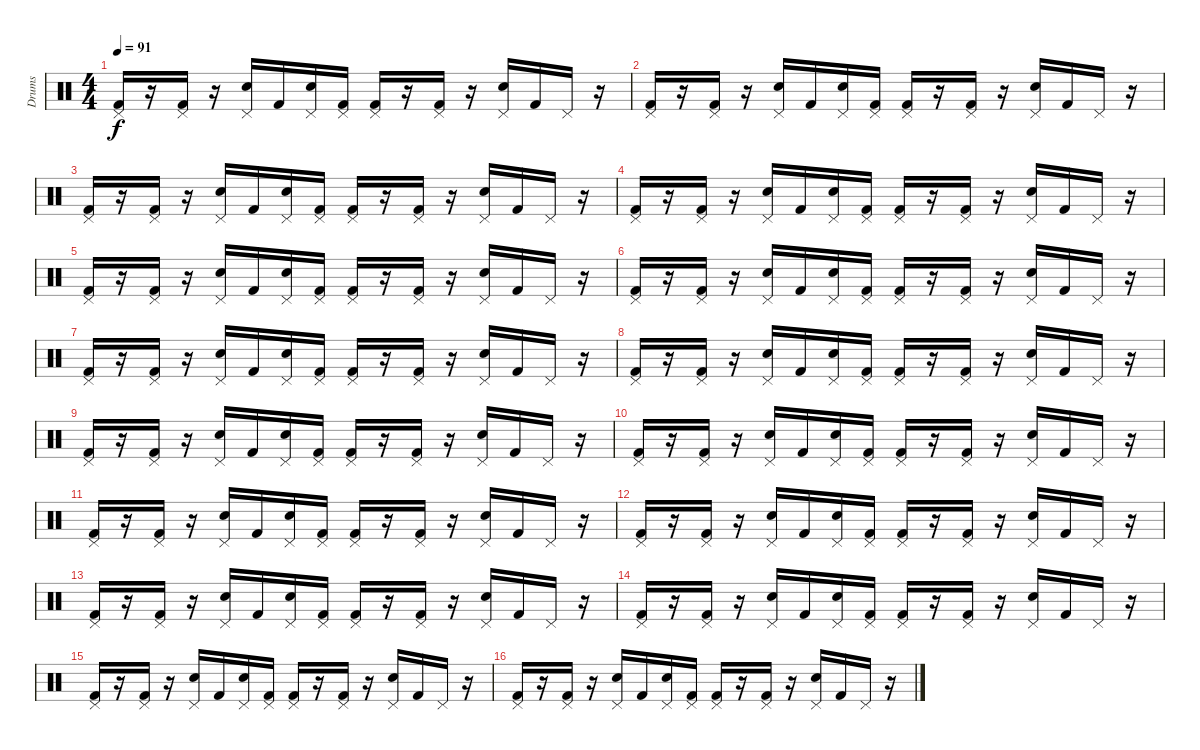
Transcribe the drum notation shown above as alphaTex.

\track ("Drums" "Drums") {instrument percussion}
\staff {score}
\articulation defaults
\ts (4 4)
\tempo 91
\clef neutral
\ks c
("Pedal Hi-Hat (hit)" "Kick (hit) 2").16{dy f} r.16 ("Pedal Hi-Hat (hit)" "Kick (hit) 2").16 r.16 ("Pedal Hi-Hat (hit)" "Snare (hit) 2").16 "Kick (hit) 2".16 ("Pedal Hi-Hat (hit)" "Snare (hit) 2").16 ("Pedal Hi-Hat (hit)" "Kick (hit) 2").16 ("Pedal Hi-Hat (hit)" "Kick (hit) 2").16 r.16 ("Pedal Hi-Hat (hit)" "Kick (hit) 2").16 r.16 ("Pedal Hi-Hat (hit)" "Snare (hit) 2").16 "Kick (hit) 2".16 "Pedal Hi-Hat (hit)".16 r.16 |
("Pedal Hi-Hat (hit)" "Kick (hit) 2").16 r.16 ("Pedal Hi-Hat (hit)" "Kick (hit) 2").16 r.16 ("Pedal Hi-Hat (hit)" "Snare (hit) 2").16 "Kick (hit) 2".16 ("Pedal Hi-Hat (hit)" "Snare (hit) 2").16 ("Pedal Hi-Hat (hit)" "Kick (hit) 2").16 ("Pedal Hi-Hat (hit)" "Kick (hit) 2").16 r.16 ("Pedal Hi-Hat (hit)" "Kick (hit) 2").16 r.16 ("Pedal Hi-Hat (hit)" "Snare (hit) 2").16 "Kick (hit) 2".16 "Pedal Hi-Hat (hit)".16 r.16 |
("Pedal Hi-Hat (hit)" "Kick (hit) 2").16 r.16 ("Pedal Hi-Hat (hit)" "Kick (hit) 2").16 r.16 ("Pedal Hi-Hat (hit)" "Snare (hit) 2").16 "Kick (hit) 2".16 ("Pedal Hi-Hat (hit)" "Snare (hit) 2").16 ("Pedal Hi-Hat (hit)" "Kick (hit) 2").16 ("Pedal Hi-Hat (hit)" "Kick (hit) 2").16 r.16 ("Pedal Hi-Hat (hit)" "Kick (hit) 2").16 r.16 ("Pedal Hi-Hat (hit)" "Snare (hit) 2").16 "Kick (hit) 2".16 "Pedal Hi-Hat (hit)".16 r.16 |
("Pedal Hi-Hat (hit)" "Kick (hit) 2").16 r.16 ("Pedal Hi-Hat (hit)" "Kick (hit) 2").16 r.16 ("Pedal Hi-Hat (hit)" "Snare (hit) 2").16 "Kick (hit) 2".16 ("Pedal Hi-Hat (hit)" "Snare (hit) 2").16 ("Pedal Hi-Hat (hit)" "Kick (hit) 2").16 ("Pedal Hi-Hat (hit)" "Kick (hit) 2").16 r.16 ("Pedal Hi-Hat (hit)" "Kick (hit) 2").16 r.16 ("Pedal Hi-Hat (hit)" "Snare (hit) 2").16 "Kick (hit) 2".16 "Pedal Hi-Hat (hit)".16 r.16 |
("Pedal Hi-Hat (hit)" "Kick (hit) 2").16 r.16 ("Pedal Hi-Hat (hit)" "Kick (hit) 2").16 r.16 ("Pedal Hi-Hat (hit)" "Snare (hit) 2").16 "Kick (hit) 2".16 ("Pedal Hi-Hat (hit)" "Snare (hit) 2").16 ("Pedal Hi-Hat (hit)" "Kick (hit) 2").16 ("Pedal Hi-Hat (hit)" "Kick (hit) 2").16 r.16 ("Pedal Hi-Hat (hit)" "Kick (hit) 2").16 r.16 ("Pedal Hi-Hat (hit)" "Snare (hit) 2").16 "Kick (hit) 2".16 "Pedal Hi-Hat (hit)".16 r.16 |
("Pedal Hi-Hat (hit)" "Kick (hit) 2").16 r.16 ("Pedal Hi-Hat (hit)" "Kick (hit) 2").16 r.16 ("Pedal Hi-Hat (hit)" "Snare (hit) 2").16 "Kick (hit) 2".16 ("Pedal Hi-Hat (hit)" "Snare (hit) 2").16 ("Pedal Hi-Hat (hit)" "Kick (hit) 2").16 ("Pedal Hi-Hat (hit)" "Kick (hit) 2").16 r.16 ("Pedal Hi-Hat (hit)" "Kick (hit) 2").16 r.16 ("Pedal Hi-Hat (hit)" "Snare (hit) 2").16 "Kick (hit) 2".16 "Pedal Hi-Hat (hit)".16 r.16 |
("Pedal Hi-Hat (hit)" "Kick (hit) 2").16 r.16 ("Pedal Hi-Hat (hit)" "Kick (hit) 2").16 r.16 ("Pedal Hi-Hat (hit)" "Snare (hit) 2").16 "Kick (hit) 2".16 ("Pedal Hi-Hat (hit)" "Snare (hit) 2").16 ("Pedal Hi-Hat (hit)" "Kick (hit) 2").16 ("Pedal Hi-Hat (hit)" "Kick (hit) 2").16 r.16 ("Pedal Hi-Hat (hit)" "Kick (hit) 2").16 r.16 ("Pedal Hi-Hat (hit)" "Snare (hit) 2").16 "Kick (hit) 2".16 "Pedal Hi-Hat (hit)".16 r.16 |
("Pedal Hi-Hat (hit)" "Kick (hit) 2").16 r.16 ("Pedal Hi-Hat (hit)" "Kick (hit) 2").16 r.16 ("Pedal Hi-Hat (hit)" "Snare (hit) 2").16 "Kick (hit) 2".16 ("Pedal Hi-Hat (hit)" "Snare (hit) 2").16 ("Pedal Hi-Hat (hit)" "Kick (hit) 2").16 ("Pedal Hi-Hat (hit)" "Kick (hit) 2").16 r.16 ("Pedal Hi-Hat (hit)" "Kick (hit) 2").16 r.16 ("Pedal Hi-Hat (hit)" "Snare (hit) 2").16 "Kick (hit) 2".16 "Pedal Hi-Hat (hit)".16 r.16 |
("Pedal Hi-Hat (hit)" "Kick (hit) 2").16 r.16 ("Pedal Hi-Hat (hit)" "Kick (hit) 2").16 r.16 ("Pedal Hi-Hat (hit)" "Snare (hit) 2").16 "Kick (hit) 2".16 ("Pedal Hi-Hat (hit)" "Snare (hit) 2").16 ("Pedal Hi-Hat (hit)" "Kick (hit) 2").16 ("Pedal Hi-Hat (hit)" "Kick (hit) 2").16 r.16 ("Pedal Hi-Hat (hit)" "Kick (hit) 2").16 r.16 ("Pedal Hi-Hat (hit)" "Snare (hit) 2").16 "Kick (hit) 2".16 "Pedal Hi-Hat (hit)".16 r.16 |
("Pedal Hi-Hat (hit)" "Kick (hit) 2").16 r.16 ("Pedal Hi-Hat (hit)" "Kick (hit) 2").16 r.16 ("Pedal Hi-Hat (hit)" "Snare (hit) 2").16 "Kick (hit) 2".16 ("Pedal Hi-Hat (hit)" "Snare (hit) 2").16 ("Pedal Hi-Hat (hit)" "Kick (hit) 2").16 ("Pedal Hi-Hat (hit)" "Kick (hit) 2").16 r.16 ("Pedal Hi-Hat (hit)" "Kick (hit) 2").16 r.16 ("Pedal Hi-Hat (hit)" "Snare (hit) 2").16 "Kick (hit) 2".16 "Pedal Hi-Hat (hit)".16 r.16 |
("Pedal Hi-Hat (hit)" "Kick (hit) 2").16 r.16 ("Pedal Hi-Hat (hit)" "Kick (hit) 2").16 r.16 ("Pedal Hi-Hat (hit)" "Snare (hit) 2").16 "Kick (hit) 2".16 ("Pedal Hi-Hat (hit)" "Snare (hit) 2").16 ("Pedal Hi-Hat (hit)" "Kick (hit) 2").16 ("Pedal Hi-Hat (hit)" "Kick (hit) 2").16 r.16 ("Pedal Hi-Hat (hit)" "Kick (hit) 2").16 r.16 ("Pedal Hi-Hat (hit)" "Snare (hit) 2").16 "Kick (hit) 2".16 "Pedal Hi-Hat (hit)".16 r.16 |
("Pedal Hi-Hat (hit)" "Kick (hit) 2").16 r.16 ("Pedal Hi-Hat (hit)" "Kick (hit) 2").16 r.16 ("Pedal Hi-Hat (hit)" "Snare (hit) 2").16 "Kick (hit) 2".16 ("Pedal Hi-Hat (hit)" "Snare (hit) 2").16 ("Pedal Hi-Hat (hit)" "Kick (hit) 2").16 ("Pedal Hi-Hat (hit)" "Kick (hit) 2").16 r.16 ("Pedal Hi-Hat (hit)" "Kick (hit) 2").16 r.16 ("Pedal Hi-Hat (hit)" "Snare (hit) 2").16 "Kick (hit) 2".16 "Pedal Hi-Hat (hit)".16 r.16 |
("Pedal Hi-Hat (hit)" "Kick (hit) 2").16 r.16 ("Pedal Hi-Hat (hit)" "Kick (hit) 2").16 r.16 ("Pedal Hi-Hat (hit)" "Snare (hit) 2").16 "Kick (hit) 2".16 ("Pedal Hi-Hat (hit)" "Snare (hit) 2").16 ("Pedal Hi-Hat (hit)" "Kick (hit) 2").16 ("Pedal Hi-Hat (hit)" "Kick (hit) 2").16 r.16 ("Pedal Hi-Hat (hit)" "Kick (hit) 2").16 r.16 ("Pedal Hi-Hat (hit)" "Snare (hit) 2").16 "Kick (hit) 2".16 "Pedal Hi-Hat (hit)".16 r.16 |
("Pedal Hi-Hat (hit)" "Kick (hit) 2").16 r.16 ("Pedal Hi-Hat (hit)" "Kick (hit) 2").16 r.16 ("Pedal Hi-Hat (hit)" "Snare (hit) 2").16 "Kick (hit) 2".16 ("Pedal Hi-Hat (hit)" "Snare (hit) 2").16 ("Pedal Hi-Hat (hit)" "Kick (hit) 2").16 ("Pedal Hi-Hat (hit)" "Kick (hit) 2").16 r.16 ("Pedal Hi-Hat (hit)" "Kick (hit) 2").16 r.16 ("Pedal Hi-Hat (hit)" "Snare (hit) 2").16 "Kick (hit) 2".16 "Pedal Hi-Hat (hit)".16 r.16 |
("Pedal Hi-Hat (hit)" "Kick (hit) 2").16 r.16 ("Pedal Hi-Hat (hit)" "Kick (hit) 2").16 r.16 ("Pedal Hi-Hat (hit)" "Snare (hit) 2").16 "Kick (hit) 2".16 ("Pedal Hi-Hat (hit)" "Snare (hit) 2").16 ("Pedal Hi-Hat (hit)" "Kick (hit) 2").16 ("Pedal Hi-Hat (hit)" "Kick (hit) 2").16 r.16 ("Pedal Hi-Hat (hit)" "Kick (hit) 2").16 r.16 ("Pedal Hi-Hat (hit)" "Snare (hit) 2").16 "Kick (hit) 2".16 "Pedal Hi-Hat (hit)".16 r.16 |
("Pedal Hi-Hat (hit)" "Kick (hit) 2").16 r.16 ("Pedal Hi-Hat (hit)" "Kick (hit) 2").16 r.16 ("Pedal Hi-Hat (hit)" "Snare (hit) 2").16 "Kick (hit) 2".16 ("Pedal Hi-Hat (hit)" "Snare (hit) 2").16 ("Pedal Hi-Hat (hit)" "Kick (hit) 2").16 ("Pedal Hi-Hat (hit)" "Kick (hit) 2").16 r.16 ("Pedal Hi-Hat (hit)" "Kick (hit) 2").16 r.16 ("Pedal Hi-Hat (hit)" "Snare (hit) 2").16 "Kick (hit) 2".16 "Pedal Hi-Hat (hit)".16 r.16
